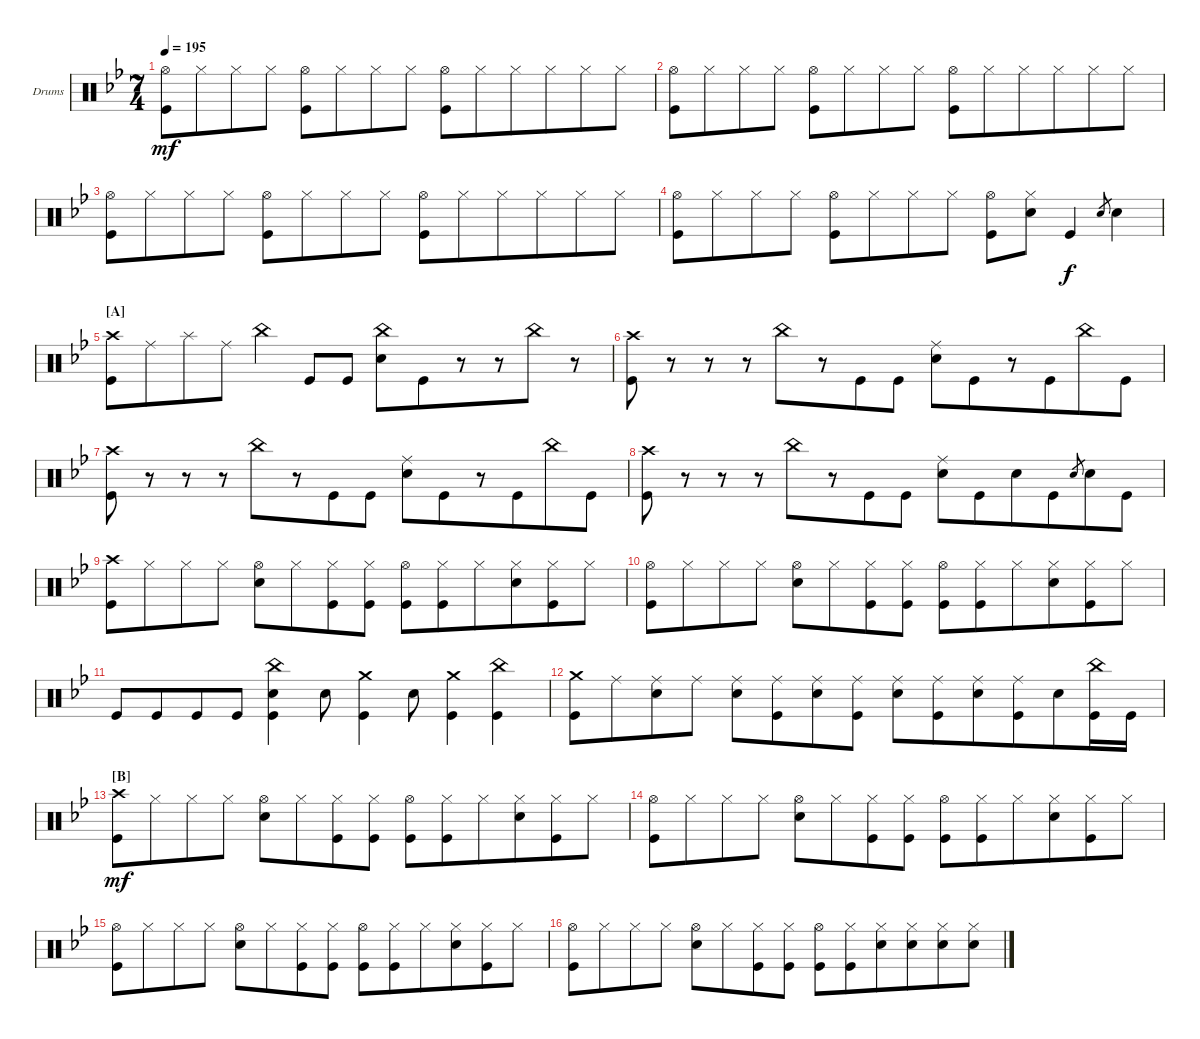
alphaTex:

\defaultSystemsLayout 4
\bracketExtendMode groupsimilarinstruments
\firstSystemTrackNameOrientation horizontal
\otherSystemsTrackNameOrientation horizontal
\track ("Drumkit" "Drums") {instrument percussion}
\staff {score}
\articulation defaults
\ts (7 4)
\beaming (8 4 4 6)
\tempo 195
\clef neutral
\ks gminor
("Hi-Hat (open)" "Kick (hit)").8{dy mf} "Hi-Hat (closed)".8 "Hi-Hat (closed)".8 "Hi-Hat (closed)".8 ("Hi-Hat (open)" "Kick (hit)").8 "Hi-Hat (closed)".8 "Hi-Hat (closed)".8 "Hi-Hat (closed)".8 ("Hi-Hat (open)" "Kick (hit)").8 "Hi-Hat (closed)".8 "Hi-Hat (closed)".8 "Hi-Hat (closed)".8 "Hi-Hat (closed)".8 "Hi-Hat (closed)".8 |
("Hi-Hat (open)" "Kick (hit)").8 "Hi-Hat (closed)".8 "Hi-Hat (closed)".8 "Hi-Hat (closed)".8 ("Hi-Hat (open)" "Kick (hit)").8 "Hi-Hat (closed)".8 "Hi-Hat (closed)".8 "Hi-Hat (closed)".8 ("Hi-Hat (open)" "Kick (hit)").8 "Hi-Hat (closed)".8 "Hi-Hat (closed)".8 "Hi-Hat (closed)".8 "Hi-Hat (closed)".8 "Hi-Hat (closed)".8 |
("Hi-Hat (open)" "Kick (hit)").8 "Hi-Hat (closed)".8 "Hi-Hat (closed)".8 "Hi-Hat (closed)".8 ("Hi-Hat (open)" "Kick (hit)").8 "Hi-Hat (closed)".8 "Hi-Hat (closed)".8 "Hi-Hat (closed)".8 ("Hi-Hat (open)" "Kick (hit)").8 "Hi-Hat (closed)".8 "Hi-Hat (closed)".8 "Hi-Hat (closed)".8 "Hi-Hat (closed)".8 "Hi-Hat (closed)".8 |
("Hi-Hat (open)" "Kick (hit)").8 "Hi-Hat (closed)".8 "Hi-Hat (closed)".8 "Hi-Hat (closed)".8 ("Hi-Hat (open)" "Kick (hit)").8 "Hi-Hat (closed)".8 "Hi-Hat (closed)".8 "Hi-Hat (closed)".8 ("Hi-Hat (open)" "Kick (hit)").8 ("Hi-Hat (closed)" "Snare (hit) 2").8 "Kick (hit)".4{dy f} "Snare (hit) 2".8{gr} "Snare (hit) 2".4 |
\section ("A" "")
("Crash high (hit)" "Kick (hit)").8 "Ride (middle)".8 "Splash (hit)".8 "Ride (middle)".8 "China (hit)".4 "Kick (hit)".8 "Kick (hit)".8 ("Snare (hit) 2" "China (hit)").8 "Kick (hit)".8 r.8 r.8 "China (hit)".8 r.8 |
("Crash high (hit)" "Kick (hit)").8 r.8 r.8 r.8 "China (hit)".8 r.8 "Kick (hit)".8 "Kick (hit)".8 ("Snare (hit) 2" "Ride (middle)").8 "Kick (hit)".8 r.8 "Kick (hit)".8 "China (hit)".8 "Kick (hit)".8 |
("Crash high (hit)" "Kick (hit)").8 r.8 r.8 r.8 "China (hit)".8 r.8 "Kick (hit)".8 "Kick (hit)".8 ("Snare (hit) 2" "Ride (middle)").8 "Kick (hit)".8 r.8 "Kick (hit)".8 "China (hit)".8 "Kick (hit)".8 |
("Crash high (hit)" "Kick (hit)").8 r.8 r.8 r.8 "China (hit)".8 r.8 "Kick (hit)".8 "Kick (hit)".8 ("Snare (hit) 2" "Ride (middle)").8 "Kick (hit)".8 "Snare (hit) 2".8 "Kick (hit)".8 "Snare (hit) 2".8{gr} "Snare (hit) 2".8 "Kick (hit)".8 |
("Crash high (hit)" "Kick (hit)").8 "Hi-Hat (closed)".8 "Hi-Hat (closed)".8 "Hi-Hat (closed)".8 ("Hi-Hat (open)" "Snare (hit) 2").8 "Hi-Hat (closed)".8 ("Hi-Hat (closed)" "Kick (hit)").8 ("Hi-Hat (closed)" "Kick (hit)").8 ("Hi-Hat (open)" "Kick (hit)").8 ("Hi-Hat (closed)" "Kick (hit)").8 "Hi-Hat (closed)".8 ("Hi-Hat (closed)" "Snare (hit) 2").8 ("Hi-Hat (closed)" "Kick (hit)").8 "Hi-Hat (closed)".8 |
("Kick (hit)" "Hi-Hat (open)").8 "Hi-Hat (closed)".8 "Hi-Hat (closed)".8 "Hi-Hat (closed)".8 ("Hi-Hat (open)" "Snare (hit) 2").8 "Hi-Hat (closed)".8 ("Hi-Hat (closed)" "Kick (hit)").8 ("Hi-Hat (closed)" "Kick (hit)").8 ("Hi-Hat (open)" "Kick (hit)").8 ("Hi-Hat (closed)" "Kick (hit)").8 "Hi-Hat (closed)".8 ("Hi-Hat (closed)" "Snare (hit) 2").8 ("Hi-Hat (closed)" "Kick (hit)").8 "Hi-Hat (closed)".8 |
"Kick (hit)".8 "Kick (hit)".8 "Kick (hit)".8 "Kick (hit)".8 ("Kick (hit)" "Snare (hit) 2" "China (hit)").4 "Snare (hit) 2".8 ("Kick (hit)" "Crash medium (hit)").4 "Snare (hit) 2".8 ("Kick (hit)" "Crash medium (hit)").4 ("Kick (hit)" "China (hit)").4 |
("Crash medium (hit)" "Kick (hit)").8 "Ride (middle)".8 ("Ride (middle)" "Snare (hit) 2").8 "Ride (middle)".8 ("Ride (middle)" "Snare (hit) 2").8 ("Ride (middle)" "Kick (hit)").8 ("Ride (middle)" "Snare (hit) 2").8 ("Ride (middle)" "Kick (hit)").8 ("Ride (middle)" "Snare (hit) 2").8 ("Ride (middle)" "Kick (hit)").8 ("Ride (middle)" "Snare (hit) 2").8 ("Ride (middle)" "Kick (hit)").8 "Snare (hit) 2".8 ("China (hit)" "Kick (hit)").16 "Kick (hit)".16 |
\section ("B" "")
("Crash high (hit)" "Kick (hit)").8{dy mf} "Hi-Hat (closed)".8 "Hi-Hat (closed)".8 "Hi-Hat (closed)".8 ("Hi-Hat (open)" "Snare (hit) 2").8 "Hi-Hat (closed)".8 ("Hi-Hat (closed)" "Kick (hit)").8 ("Hi-Hat (closed)" "Kick (hit)").8 ("Hi-Hat (open)" "Kick (hit)").8 ("Hi-Hat (closed)" "Kick (hit)").8 "Hi-Hat (closed)".8 ("Hi-Hat (closed)" "Snare (hit) 2").8 ("Hi-Hat (closed)" "Kick (hit)").8 "Hi-Hat (closed)".8 |
("Kick (hit)" "Hi-Hat (open)").8 "Hi-Hat (closed)".8 "Hi-Hat (closed)".8 "Hi-Hat (closed)".8 ("Hi-Hat (open)" "Snare (hit) 2").8 "Hi-Hat (closed)".8 ("Hi-Hat (closed)" "Kick (hit)").8 ("Hi-Hat (closed)" "Kick (hit)").8 ("Hi-Hat (open)" "Kick (hit)").8 ("Hi-Hat (closed)" "Kick (hit)").8 "Hi-Hat (closed)".8 ("Hi-Hat (closed)" "Snare (hit) 2").8 ("Hi-Hat (closed)" "Kick (hit)").8 "Hi-Hat (closed)".8 |
("Kick (hit)" "Hi-Hat (open)").8 "Hi-Hat (closed)".8 "Hi-Hat (closed)".8 "Hi-Hat (closed)".8 ("Hi-Hat (open)" "Snare (hit) 2").8 "Hi-Hat (closed)".8 ("Hi-Hat (closed)" "Kick (hit)").8 ("Hi-Hat (closed)" "Kick (hit)").8 ("Hi-Hat (open)" "Kick (hit)").8 ("Hi-Hat (closed)" "Kick (hit)").8 "Hi-Hat (closed)".8 ("Hi-Hat (closed)" "Snare (hit) 2").8 ("Hi-Hat (closed)" "Kick (hit)").8 "Hi-Hat (closed)".8 |
("Kick (hit)" "Hi-Hat (open)").8 "Hi-Hat (closed)".8 "Hi-Hat (closed)".8 "Hi-Hat (closed)".8 ("Hi-Hat (open)" "Snare (hit) 2").8 "Hi-Hat (closed)".8 ("Hi-Hat (closed)" "Kick (hit)").8 ("Hi-Hat (closed)" "Kick (hit)").8 ("Hi-Hat (open)" "Kick (hit)").8 ("Hi-Hat (closed)" "Kick (hit)").8 ("Hi-Hat (closed)" "Snare (hit) 2").8 ("Hi-Hat (closed)" "Snare (hit) 2").8 ("Hi-Hat (closed)" "Snare (hit) 2").8 ("Hi-Hat (closed)" "Snare (hit) 2").8
